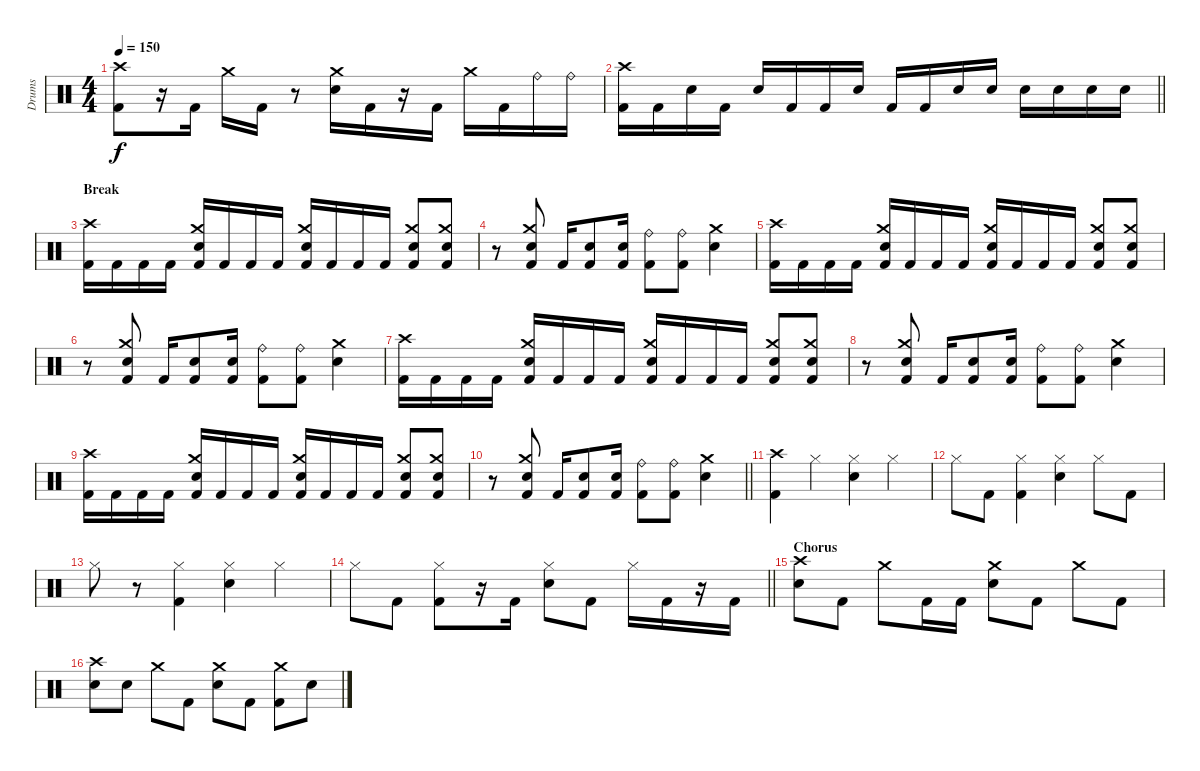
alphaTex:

\track ("Drums" "Drums") {instrument percussion}
\staff {score}
\articulation defaults
\ts (4 4)
\tempo 150
\clef neutral
\ks c
("Crash high (hit)" "Kick (hit) 2").8{dy f} r.16 "Kick (hit) 2".16 "Crash medium (hit)".16 "Kick (hit) 2".16 r.8 ("Crash medium (hit)" "Snare (hit) 2").16 "Kick (hit) 2".16 r.16 "Kick (hit) 2".16 "Crash medium (hit)".16 "Kick (hit) 2".16 "Ride (bell)".16 "Ride (bell)".16 |
\barLineRight lightlight
("Crash high (hit)" "Kick (hit) 2").16 "Kick (hit) 2".16 "Snare (hit) 2".16 "Kick (hit) 2".16 "Snare (hit) 2".16 "Kick (hit) 2".16 "Kick (hit) 2".16 "Snare (hit) 2".16 "Kick (hit) 2".16 "Kick (hit) 2".16 "Snare (hit) 2".16 "Snare (hit) 2".16 "Snare (hit) 2".16 "Snare (hit) 2".16 "Snare (hit) 2".16 "Snare (hit) 2".16 |
\section ("" "Break")
("Crash high (hit)" "Kick (hit) 2").16 "Kick (hit) 2".16 "Kick (hit) 2".16 "Kick (hit) 2".16 ("Crash medium (hit)" "Snare (hit) 2" "Kick (hit) 2").16 "Kick (hit) 2".16 "Kick (hit) 2".16 "Kick (hit) 2".16 ("Crash medium (hit)" "Snare (hit) 2" "Kick (hit) 2").16 "Kick (hit) 2".16 "Kick (hit) 2".16 "Kick (hit) 2".16 ("Crash medium (hit)" "Snare (hit) 2" "Kick (hit) 2").8 ("Crash medium (hit)" "Snare (hit) 2" "Kick (hit) 2").8 |
r.8 ("Crash medium (hit)" "Snare (hit) 2" "Kick (hit) 2").8 "Kick (hit) 2".16 ("Snare (hit) 2" "Kick (hit) 2").8 ("Snare (hit) 2" "Kick (hit) 2").16 ("Ride (bell)" "Kick (hit) 2").8 ("Ride (bell)" "Kick (hit) 2").8 ("Crash medium (hit)" "Snare (hit) 2").4 |
("Crash high (hit)" "Kick (hit) 2").16 "Kick (hit) 2".16 "Kick (hit) 2".16 "Kick (hit) 2".16 ("Crash medium (hit)" "Snare (hit) 2" "Kick (hit) 2").16 "Kick (hit) 2".16 "Kick (hit) 2".16 "Kick (hit) 2".16 ("Crash medium (hit)" "Snare (hit) 2" "Kick (hit) 2").16 "Kick (hit) 2".16 "Kick (hit) 2".16 "Kick (hit) 2".16 ("Crash medium (hit)" "Snare (hit) 2" "Kick (hit) 2").8 ("Crash medium (hit)" "Snare (hit) 2" "Kick (hit) 2").8 |
r.8 ("Crash medium (hit)" "Snare (hit) 2" "Kick (hit) 2").8 "Kick (hit) 2".16 ("Snare (hit) 2" "Kick (hit) 2").8 ("Snare (hit) 2" "Kick (hit) 2").16 ("Ride (bell)" "Kick (hit) 2").8 ("Ride (bell)" "Kick (hit) 2").8 ("Crash medium (hit)" "Snare (hit) 2").4 |
("Crash high (hit)" "Kick (hit) 2").16 "Kick (hit) 2".16 "Kick (hit) 2".16 "Kick (hit) 2".16 ("Crash medium (hit)" "Snare (hit) 2" "Kick (hit) 2").16 "Kick (hit) 2".16 "Kick (hit) 2".16 "Kick (hit) 2".16 ("Crash medium (hit)" "Snare (hit) 2" "Kick (hit) 2").16 "Kick (hit) 2".16 "Kick (hit) 2".16 "Kick (hit) 2".16 ("Crash medium (hit)" "Snare (hit) 2" "Kick (hit) 2").8 ("Crash medium (hit)" "Snare (hit) 2" "Kick (hit) 2").8 |
r.8 ("Crash medium (hit)" "Snare (hit) 2" "Kick (hit) 2").8 "Kick (hit) 2".16 ("Snare (hit) 2" "Kick (hit) 2").8 ("Snare (hit) 2" "Kick (hit) 2").16 ("Ride (bell)" "Kick (hit) 2").8 ("Ride (bell)" "Kick (hit) 2").8 ("Crash medium (hit)" "Snare (hit) 2").4 |
("Crash high (hit)" "Kick (hit) 2").16 "Kick (hit) 2".16 "Kick (hit) 2".16 "Kick (hit) 2".16 ("Crash medium (hit)" "Snare (hit) 2" "Kick (hit) 2").16 "Kick (hit) 2".16 "Kick (hit) 2".16 "Kick (hit) 2".16 ("Crash medium (hit)" "Snare (hit) 2" "Kick (hit) 2").16 "Kick (hit) 2".16 "Kick (hit) 2".16 "Kick (hit) 2".16 ("Crash medium (hit)" "Snare (hit) 2" "Kick (hit) 2").8 ("Crash medium (hit)" "Snare (hit) 2" "Kick (hit) 2").8 |
\barLineRight lightlight
r.8 ("Crash medium (hit)" "Snare (hit) 2" "Kick (hit) 2").8 "Kick (hit) 2".16 ("Snare (hit) 2" "Kick (hit) 2").8 ("Snare (hit) 2" "Kick (hit) 2").16 ("Ride (bell)" "Kick (hit) 2").8 ("Ride (bell)" "Kick (hit) 2").8 ("Crash medium (hit)" "Snare (hit) 2").4 |
("Crash high (hit)" "Kick (hit) 2").4{volume 0} "Hi-Hat (closed)".4{volume 16} ("Hi-Hat (closed)" "Snare (hit) 2").4 "Hi-Hat (closed)".4 |
"Hi-Hat (closed)".8 "Kick (hit) 2".8 ("Hi-Hat (closed)" "Kick (hit) 2").4 ("Hi-Hat (closed)" "Snare (hit) 2").4 "Hi-Hat (closed)".8 "Kick (hit) 2".8 |
"Hi-Hat (closed)".8 r.8 ("Hi-Hat (closed)" "Kick (hit) 2").4 ("Hi-Hat (closed)" "Snare (hit) 2").4 "Hi-Hat (closed)".4 |
\barLineRight lightlight "Hi-Hat (closed)".8 "Kick (hit) 2".8
("Hi-Hat (closed)" "Kick (hit) 2").8 r.16 "Kick (hit) 2".16 ("Hi-Hat (closed)" "Snare (hit) 2").8 "Kick (hit) 2".8 "Hi-Hat (closed)".16 "Kick (hit) 2".16 r.16 "Kick (hit) 2".16 |
\section ("" "Chorus")
("Crash high (hit)" "Snare (hit) 2").8 "Kick (hit) 2".8 "Crash medium (hit)".8 "Kick (hit) 2".16 "Kick (hit) 2".16 ("Crash medium (hit)" "Snare (hit) 2").8 "Kick (hit) 2".8 "Crash medium (hit)".8 "Kick (hit) 2".8 |
("Crash high (hit)" "Snare (hit) 2").8 "Snare (hit) 2".8 "Crash medium (hit)".8 "Kick (hit) 2".8 ("Crash medium (hit)" "Snare (hit) 2").8 "Kick (hit) 2".8 ("Crash medium (hit)" "Kick (hit) 2").8 "Snare (hit) 2".8
